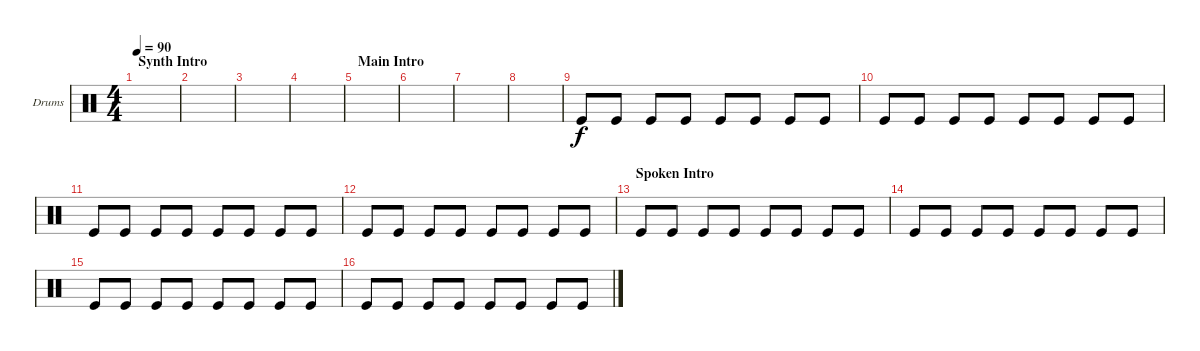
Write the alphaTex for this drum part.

\defaultSystemsLayout 4
\bracketExtendMode groupsimilarinstruments
\firstSystemTrackNameOrientation horizontal
\otherSystemsTrackNameOrientation horizontal
\track ("Drumkit" "Drums") {instrument percussion}
\staff {score}
\articulation defaults
\ts (4 4)
\section ("" "Synth Intro")
\tempo 90
\clef neutral
\ks c
|
|
|
|
\section ("" "Main Intro")
|
|
|
|
"Kick (hit)".8 "Kick (hit)".8 "Kick (hit)".8 "Kick (hit)".8 "Kick (hit)".8 "Kick (hit)".8 "Kick (hit)".8 "Kick (hit)".8 |
"Kick (hit)".8 "Kick (hit)".8 "Kick (hit)".8 "Kick (hit)".8 "Kick (hit)".8 "Kick (hit)".8 "Kick (hit)".8 "Kick (hit)".8 |
"Kick (hit)".8 "Kick (hit)".8 "Kick (hit)".8 "Kick (hit)".8 "Kick (hit)".8 "Kick (hit)".8 "Kick (hit)".8 "Kick (hit)".8 |
"Kick (hit)".8 "Kick (hit)".8 "Kick (hit)".8 "Kick (hit)".8 "Kick (hit)".8 "Kick (hit)".8 "Kick (hit)".8 "Kick (hit)".8 |
\section ("" "Spoken Intro")
"Kick (hit)".8 "Kick (hit)".8 "Kick (hit)".8 "Kick (hit)".8 "Kick (hit)".8 "Kick (hit)".8 "Kick (hit)".8 "Kick (hit)".8 |
"Kick (hit)".8 "Kick (hit)".8 "Kick (hit)".8 "Kick (hit)".8 "Kick (hit)".8 "Kick (hit)".8 "Kick (hit)".8 "Kick (hit)".8 |
"Kick (hit)".8 "Kick (hit)".8 "Kick (hit)".8 "Kick (hit)".8 "Kick (hit)".8 "Kick (hit)".8 "Kick (hit)".8 "Kick (hit)".8 |
"Kick (hit)".8 "Kick (hit)".8 "Kick (hit)".8 "Kick (hit)".8 "Kick (hit)".8 "Kick (hit)".8 "Kick (hit)".8 "Kick (hit)".8
